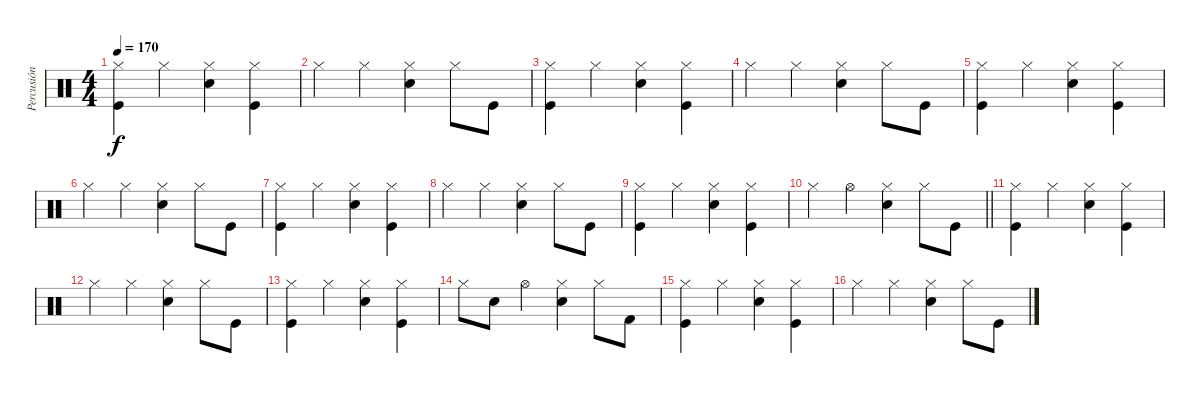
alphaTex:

\track ("Percusión" "Percusión") {instrument percussion}
\staff {score}
\articulation defaults
\ts (4 4)
\tempo 170
\clef neutral
\ks c
("Hi-Hat (closed)" "Kick (hit)").4{dy f} "Hi-Hat (closed)".4 ("Hi-Hat (closed)" "Electric Snare (hit)").4 ("Hi-Hat (closed)" "Kick (hit)").4 |
"Hi-Hat (closed)".4 "Hi-Hat (closed)".4 ("Hi-Hat (closed)" "Electric Snare (hit)").4 "Hi-Hat (closed)".8 "Kick (hit)".8 |
("Hi-Hat (closed)" "Kick (hit)").4 "Hi-Hat (closed)".4 ("Hi-Hat (closed)" "Electric Snare (hit)").4 ("Hi-Hat (closed)" "Kick (hit)").4 |
"Hi-Hat (closed)".4 "Hi-Hat (closed)".4 ("Hi-Hat (closed)" "Electric Snare (hit)").4 "Hi-Hat (closed)".8 "Kick (hit)".8 |
("Hi-Hat (closed)" "Kick (hit)").4 "Hi-Hat (closed)".4 ("Hi-Hat (closed)" "Electric Snare (hit)").4 ("Hi-Hat (closed)" "Kick (hit)").4 |
"Hi-Hat (closed)".4 "Hi-Hat (closed)".4 ("Hi-Hat (closed)" "Electric Snare (hit)").4 "Hi-Hat (closed)".8 "Kick (hit)".8 |
("Hi-Hat (closed)" "Kick (hit)").4 "Hi-Hat (closed)".4 ("Hi-Hat (closed)" "Electric Snare (hit)").4 ("Hi-Hat (closed)" "Kick (hit)").4 |
"Hi-Hat (closed)".4 "Hi-Hat (closed)".4 ("Hi-Hat (closed)" "Electric Snare (hit)").4 "Hi-Hat (closed)".8 "Kick (hit)".8 |
("Hi-Hat (closed)" "Kick (hit)").4 "Hi-Hat (closed)".4 ("Hi-Hat (closed)" "Electric Snare (hit)").4 ("Hi-Hat (closed)" "Kick (hit)").4 |
\barLineRight lightlight "Hi-Hat (closed)".4 "Hi-Hat (open)".4
("Hi-Hat (closed)" "Electric Snare (hit)").4 "Hi-Hat (closed)".8 "Kick (hit)".8 |
("Hi-Hat (closed)" "Kick (hit)").4 "Hi-Hat (closed)".4 ("Hi-Hat (closed)" "Electric Snare (hit)").4 ("Hi-Hat (closed)" "Kick (hit)").4 |
"Hi-Hat (closed)".4 "Hi-Hat (closed)".4 ("Hi-Hat (closed)" "Electric Snare (hit)").4 "Hi-Hat (closed)".8 "Kick (hit)".8 |
("Hi-Hat (closed)" "Kick (hit)").4 "Hi-Hat (closed)".4 ("Hi-Hat (closed)" "Electric Snare (hit)").4 ("Hi-Hat (closed)" "Kick (hit)").4 |
"Hi-Hat (closed)".8 "Electric Snare (hit)".8 "Hi-Hat (open)".4 ("Hi-Hat (closed)" "Electric Snare (hit)").4 "Hi-Hat (closed)".8 "Kick (hit) 2".8 |
("Hi-Hat (closed)" "Kick (hit)").4 "Hi-Hat (closed)".4 ("Hi-Hat (closed)" "Electric Snare (hit)").4 ("Hi-Hat (closed)" "Kick (hit)").4 |
"Hi-Hat (closed)".4 "Hi-Hat (closed)".4 ("Hi-Hat (closed)" "Electric Snare (hit)").4 "Hi-Hat (closed)".8 "Kick (hit)".8
